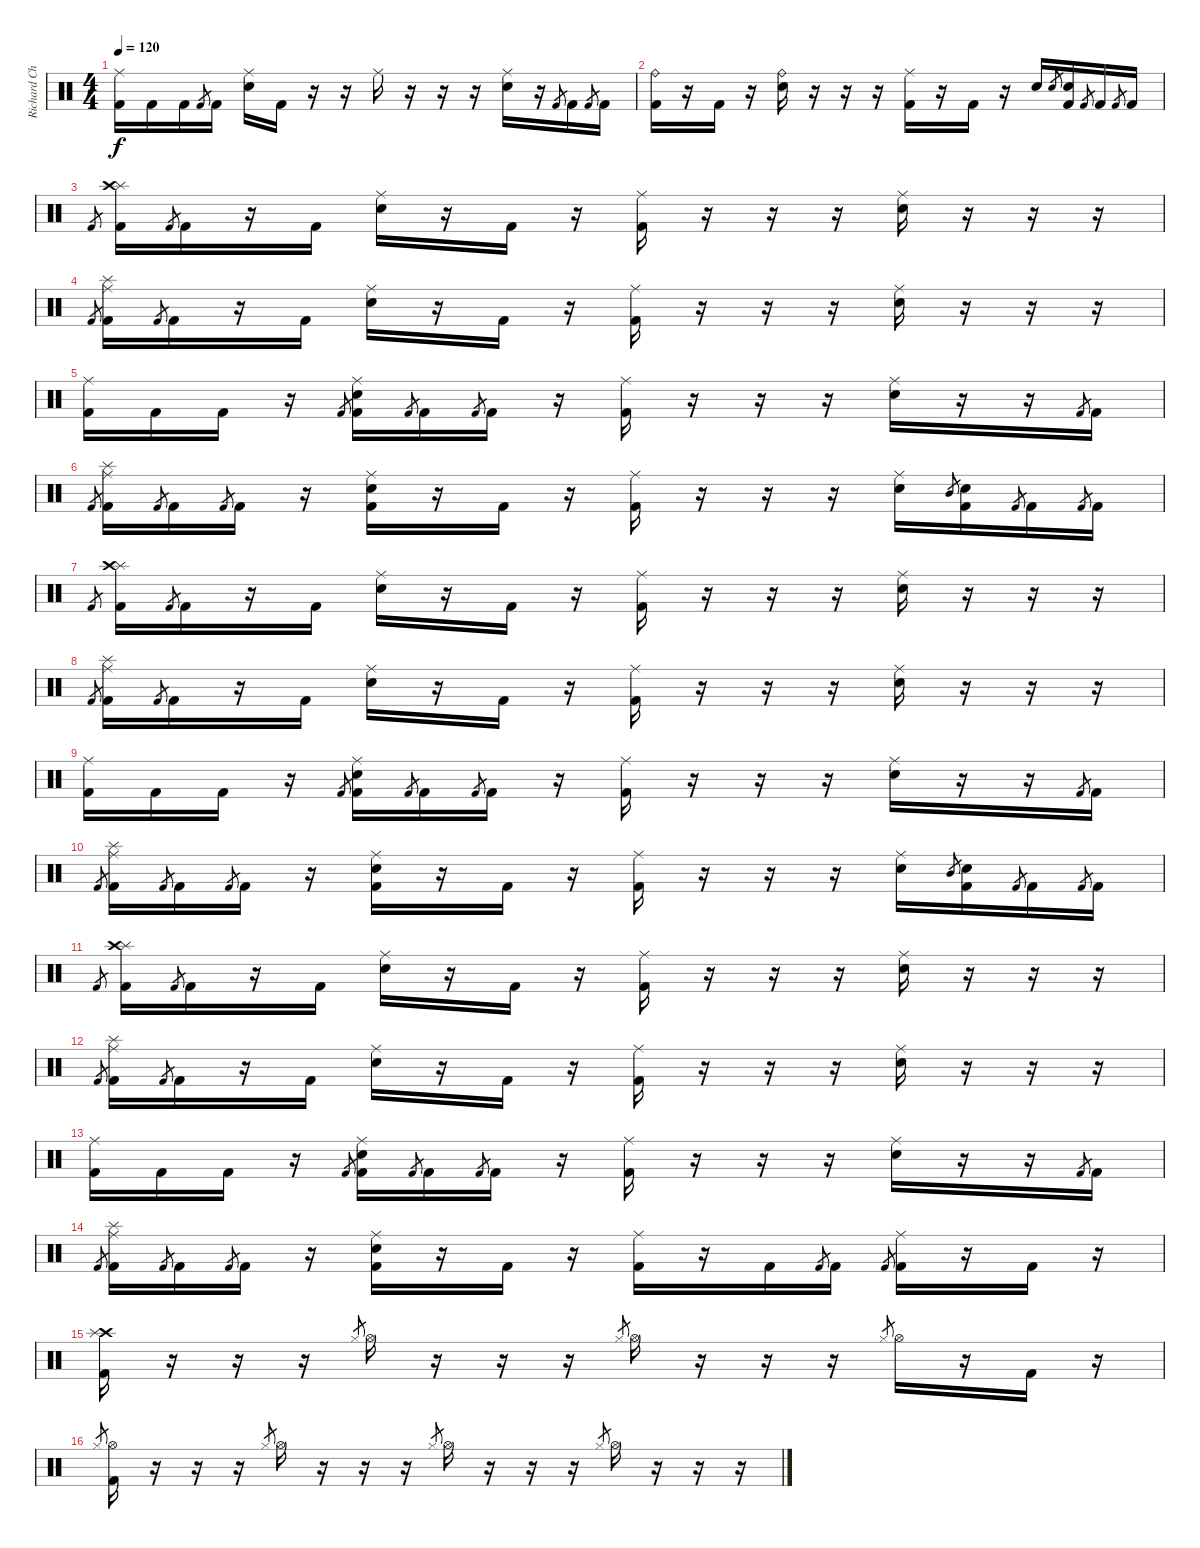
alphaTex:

\track ("Richard Christy" "Richard Ch") {instrument percussion}
\staff {score}
\articulation defaults
\ts (4 4)
\tempo 120
\clef neutral
\ks c
("Ride (middle)" "Kick (hit) 2").16{dy f} "Kick (hit) 2".16 "Kick (hit) 2".16 "Kick (hit) 2".8{gr} "Kick (hit) 2".16 ("Ride (middle)" "Snare (hit) 2").16 "Kick (hit) 2".16 r.16 r.16 "Ride (middle)".16 r.16 r.16 r.16 ("Ride (middle)" "Snare (hit) 2").16 r.16 "Kick (hit) 2".8{gr} "Kick (hit) 2".16 "Kick (hit) 2".8{gr} "Kick (hit) 2".16 |
("Ride (bell)" "Kick (hit) 2").16 r.16 "Kick (hit) 2".16 r.16 ("Ride (bell)" "Snare (hit) 2").16 r.16 r.16 r.16 ("Ride (middle)" "Kick (hit) 2").16 r.16 "Kick (hit) 2".16 r.16 "Snare (hit) 2".16 "Snare (hit) 2".8{gr} ("Snare (hit) 2" "Kick (hit) 2").16 "Kick (hit) 2".8{gr} "Kick (hit) 2".16 "Kick (hit) 2".8{gr} "Kick (hit) 2".16 |
"Kick (hit) 2".8{gr} ("Splash (hit)" "Crash high (hit)" "Kick (hit) 2").16 "Kick (hit) 2".8{gr} "Kick (hit) 2".16 r.16 "Kick (hit) 2".16 ("Ride (middle)" "Snare (hit) 2").16 r.16 "Kick (hit) 2".16 r.16 ("Ride (middle)" "Kick (hit) 2").16 r.16 r.16 r.16 ("Ride (middle)" "Snare (hit) 2").16 r.16 r.16 r.16 |
"Kick (hit) 2".8{gr} ("Ride (middle)" "Splash (hit)" "Kick (hit) 2").16 "Kick (hit) 2".8{gr} "Kick (hit) 2".16 r.16 "Kick (hit) 2".16 ("Ride (middle)" "Snare (hit) 2").16 r.16 "Kick (hit) 2".16 r.16 ("Ride (middle)" "Kick (hit) 2").16 r.16 r.16 r.16 ("Ride (middle)" "Snare (hit) 2").16 r.16 r.16 r.16 |
("Ride (middle)" "Kick (hit) 2").16 "Kick (hit) 2".16 "Kick (hit) 2".16 r.16 "Kick (hit) 2".8{gr} ("Ride (middle)" "Snare (hit) 2" "Kick (hit) 2").16 "Kick (hit) 2".8{gr} "Kick (hit) 2".16 "Kick (hit) 2".8{gr} "Kick (hit) 2".16 r.16 ("Ride (middle)" "Kick (hit) 2").16 r.16 r.16 r.16 ("Ride (middle)" "Snare (hit) 2").16 r.16 r.16 "Kick (hit) 2".8{gr} "Kick (hit) 2".16 |
"Kick (hit) 2".8{gr} ("Ride (middle)" "Splash (hit)" "Kick (hit) 2").16 "Kick (hit) 2".8{gr} "Kick (hit) 2".16 "Kick (hit) 2".8{gr} "Kick (hit) 2".16 r.16 ("Ride (middle)" "Snare (hit) 2" "Kick (hit) 2").16 r.16 "Kick (hit) 2".16 r.16 ("Ride (middle)" "Kick (hit) 2").16 r.16 r.16 r.16 ("Ride (middle)" "Snare (hit) 2").16 "Mid Tom (hit)".8{gr} ("Snare (hit) 2" "Kick (hit) 2").16 "Kick (hit) 2".8{gr} "Kick (hit) 2".16 "Kick (hit) 2".8{gr} "Kick (hit) 2".16 |
"Kick (hit) 2".8{gr} ("Splash (hit)" "Crash high (hit)" "Kick (hit) 2").16 "Kick (hit) 2".8{gr} "Kick (hit) 2".16 r.16 "Kick (hit) 2".16 ("Ride (middle)" "Snare (hit) 2").16 r.16 "Kick (hit) 2".16 r.16 ("Ride (middle)" "Kick (hit) 2").16 r.16 r.16 r.16 ("Ride (middle)" "Snare (hit) 2").16 r.16 r.16 r.16 |
"Kick (hit) 2".8{gr} ("Ride (middle)" "Splash (hit)" "Kick (hit) 2").16 "Kick (hit) 2".8{gr} "Kick (hit) 2".16 r.16 "Kick (hit) 2".16 ("Ride (middle)" "Snare (hit) 2").16 r.16 "Kick (hit) 2".16 r.16 ("Ride (middle)" "Kick (hit) 2").16 r.16 r.16 r.16 ("Ride (middle)" "Snare (hit) 2").16 r.16 r.16 r.16 |
("Ride (middle)" "Kick (hit) 2").16 "Kick (hit) 2".16 "Kick (hit) 2".16 r.16 "Kick (hit) 2".8{gr} ("Ride (middle)" "Snare (hit) 2" "Kick (hit) 2").16 "Kick (hit) 2".8{gr} "Kick (hit) 2".16 "Kick (hit) 2".8{gr} "Kick (hit) 2".16 r.16 ("Ride (middle)" "Kick (hit) 2").16 r.16 r.16 r.16 ("Ride (middle)" "Snare (hit) 2").16 r.16 r.16 "Kick (hit) 2".8{gr} "Kick (hit) 2".16 |
"Kick (hit) 2".8{gr} ("Ride (middle)" "Splash (hit)" "Kick (hit) 2").16 "Kick (hit) 2".8{gr} "Kick (hit) 2".16 "Kick (hit) 2".8{gr} "Kick (hit) 2".16 r.16 ("Ride (middle)" "Snare (hit) 2" "Kick (hit) 2").16 r.16 "Kick (hit) 2".16 r.16 ("Ride (middle)" "Kick (hit) 2").16 r.16 r.16 r.16 ("Ride (middle)" "Snare (hit) 2").16 "Mid Tom (hit)".8{gr} ("Snare (hit) 2" "Kick (hit) 2").16 "Kick (hit) 2".8{gr} "Kick (hit) 2".16 "Kick (hit) 2".8{gr} "Kick (hit) 2".16 |
"Kick (hit) 2".8{gr} ("Splash (hit)" "Crash high (hit)" "Kick (hit) 2").16 "Kick (hit) 2".8{gr} "Kick (hit) 2".16 r.16 "Kick (hit) 2".16 ("Ride (middle)" "Snare (hit) 2").16 r.16 "Kick (hit) 2".16 r.16 ("Ride (middle)" "Kick (hit) 2").16 r.16 r.16 r.16 ("Ride (middle)" "Snare (hit) 2").16 r.16 r.16 r.16 |
"Kick (hit) 2".8{gr} ("Ride (middle)" "Splash (hit)" "Kick (hit) 2").16 "Kick (hit) 2".8{gr} "Kick (hit) 2".16 r.16 "Kick (hit) 2".16 ("Ride (middle)" "Snare (hit) 2").16 r.16 "Kick (hit) 2".16 r.16 ("Ride (middle)" "Kick (hit) 2").16 r.16 r.16 r.16 ("Ride (middle)" "Snare (hit) 2").16 r.16 r.16 r.16 |
("Ride (middle)" "Kick (hit) 2").16 "Kick (hit) 2".16 "Kick (hit) 2".16 r.16 "Kick (hit) 2".8{gr} ("Ride (middle)" "Snare (hit) 2" "Kick (hit) 2").16 "Kick (hit) 2".8{gr} "Kick (hit) 2".16 "Kick (hit) 2".8{gr} "Kick (hit) 2".16 r.16 ("Ride (middle)" "Kick (hit) 2").16 r.16 r.16 r.16 ("Ride (middle)" "Snare (hit) 2").16 r.16 r.16 "Kick (hit) 2".8{gr} "Kick (hit) 2".16 |
"Kick (hit) 2".8{gr} ("Ride (middle)" "Splash (hit)" "Kick (hit) 2").16 "Kick (hit) 2".8{gr} "Kick (hit) 2".16 "Kick (hit) 2".8{gr} "Kick (hit) 2".16 r.16 ("Ride (middle)" "Snare (hit) 2" "Kick (hit) 2").16 r.16 "Kick (hit) 2".16 r.16 ("Ride (middle)" "Kick (hit) 2").16 r.16 "Kick (hit) 2".16 "Kick (hit) 2".8{gr} "Kick (hit) 2".16 "Kick (hit) 2".8{gr} ("Ride (middle)" "Kick (hit) 2").16 r.16 "Kick (hit) 2".16 r.16 |
("Crash high (hit)" "Splash (hit)" "Kick (hit) 2").16 r.16 r.16 r.16 "Hi-Hat (closed)".8{gr} "Hi-Hat (open)".16 r.16 r.16 r.16 "Hi-Hat (closed)".8{gr} "Hi-Hat (open)".16 r.16 r.16 r.16 "Hi-Hat (closed)".8{gr} "Hi-Hat (open)".16 r.16 "Kick (hit) 2".16 r.16 |
"Hi-Hat (closed)".8{gr} ("Hi-Hat (open)" "Kick (hit) 2").16 r.16 r.16 r.16 "Hi-Hat (closed)".8{gr} "Hi-Hat (open)".16 r.16 r.16 r.16 "Hi-Hat (closed)".8{gr} "Hi-Hat (open)".16 r.16 r.16 r.16 "Hi-Hat (closed)".8{gr} "Hi-Hat (open)".16 r.16 r.16 r.16
